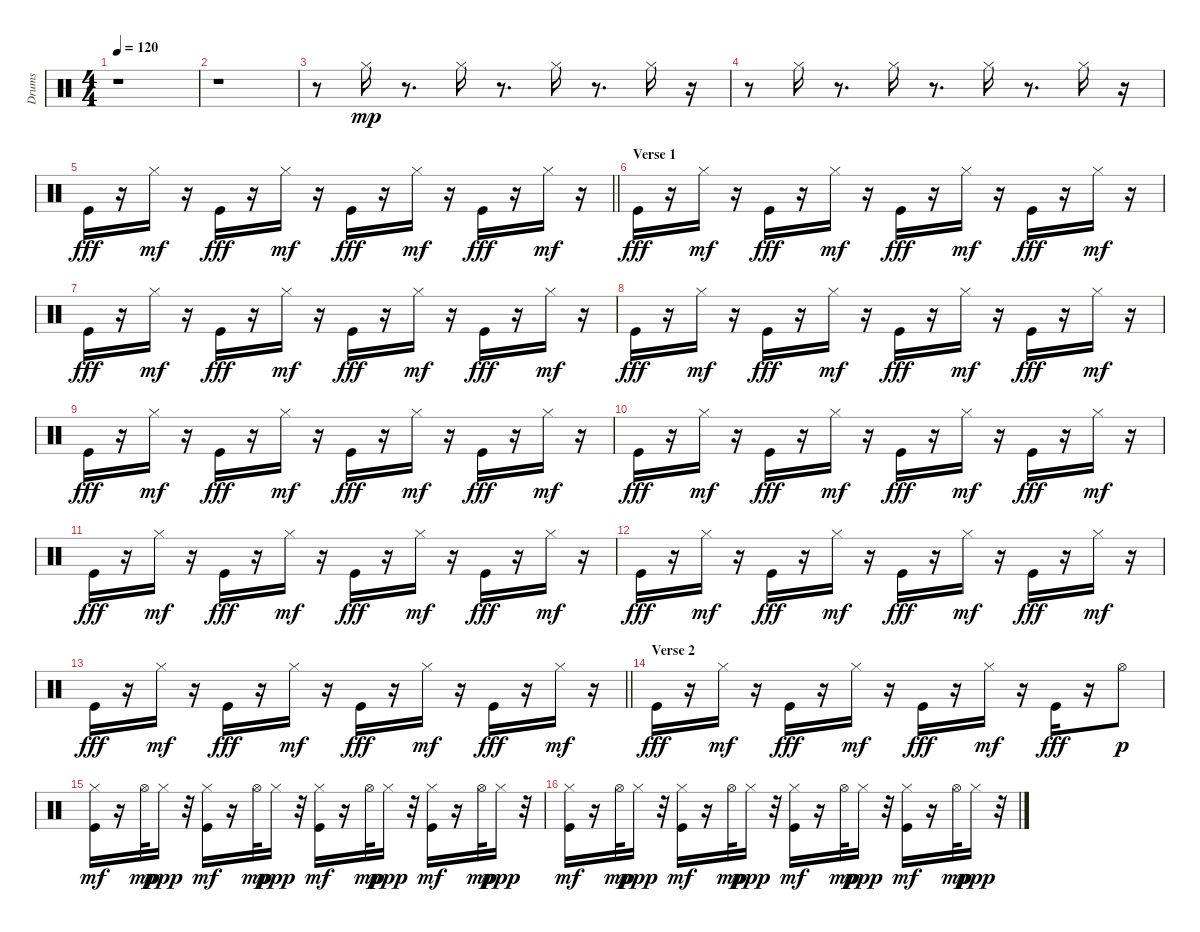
\track ("Drums" "Drums") {instrument percussion}
\staff {score}
\articulation defaults
\ts (4 4)
\tempo 120
\clef neutral
\ks c
r.1{dy mp} |
r.1 |
r.8 "Hi-Hat (closed)".16 r.8{d} "Hi-Hat (closed)".16 r.8{d} "Hi-Hat (closed)".16 r.8{d} "Hi-Hat (closed)".16 r.16 |
r.8 "Hi-Hat (closed)".16 r.8{d} "Hi-Hat (closed)".16 r.8{d} "Hi-Hat (closed)".16 r.8{d} "Hi-Hat (closed)".16 r.16 |
\barLineRight lightlight "Kick (hit)".16{dy fff}
r.16 "Hi-Hat (closed)".16{dy mf} r.16 "Kick (hit)".16{dy fff} r.16 "Hi-Hat (closed)".16{dy mf} r.16 "Kick (hit)".16{dy fff} r.16 "Hi-Hat (closed)".16{dy mf} r.16 "Kick (hit)".16{dy fff} r.16 "Hi-Hat (closed)".16{dy mf} r.16 |
\section ("" "Verse 1")
"Kick (hit)".16{dy fff} r.16 "Hi-Hat (closed)".16{dy mf} r.16 "Kick (hit)".16{dy fff} r.16 "Hi-Hat (closed)".16{dy mf} r.16 "Kick (hit)".16{dy fff} r.16 "Hi-Hat (closed)".16{dy mf} r.16 "Kick (hit)".16{dy fff} r.16 "Hi-Hat (closed)".16{dy mf} r.16 |
"Kick (hit)".16{dy fff} r.16 "Hi-Hat (closed)".16{dy mf} r.16 "Kick (hit)".16{dy fff} r.16 "Hi-Hat (closed)".16{dy mf} r.16 "Kick (hit)".16{dy fff} r.16 "Hi-Hat (closed)".16{dy mf} r.16 "Kick (hit)".16{dy fff} r.16 "Hi-Hat (closed)".16{dy mf} r.16 |
"Kick (hit)".16{dy fff} r.16 "Hi-Hat (closed)".16{dy mf} r.16 "Kick (hit)".16{dy fff} r.16 "Hi-Hat (closed)".16{dy mf} r.16 "Kick (hit)".16{dy fff} r.16 "Hi-Hat (closed)".16{dy mf} r.16 "Kick (hit)".16{dy fff} r.16 "Hi-Hat (closed)".16{dy mf} r.16 |
"Kick (hit)".16{dy fff} r.16 "Hi-Hat (closed)".16{dy mf} r.16 "Kick (hit)".16{dy fff} r.16 "Hi-Hat (closed)".16{dy mf} r.16 "Kick (hit)".16{dy fff} r.16 "Hi-Hat (closed)".16{dy mf} r.16 "Kick (hit)".16{dy fff} r.16 "Hi-Hat (closed)".16{dy mf} r.16 |
"Kick (hit)".16{dy fff} r.16 "Hi-Hat (closed)".16{dy mf} r.16 "Kick (hit)".16{dy fff} r.16 "Hi-Hat (closed)".16{dy mf} r.16 "Kick (hit)".16{dy fff} r.16 "Hi-Hat (closed)".16{dy mf} r.16 "Kick (hit)".16{dy fff} r.16 "Hi-Hat (closed)".16{dy mf} r.16 |
"Kick (hit)".16{dy fff} r.16 "Hi-Hat (closed)".16{dy mf} r.16 "Kick (hit)".16{dy fff} r.16 "Hi-Hat (closed)".16{dy mf} r.16 "Kick (hit)".16{dy fff} r.16 "Hi-Hat (closed)".16{dy mf} r.16 "Kick (hit)".16{dy fff} r.16 "Hi-Hat (closed)".16{dy mf} r.16 |
"Kick (hit)".16{dy fff} r.16 "Hi-Hat (closed)".16{dy mf} r.16 "Kick (hit)".16{dy fff} r.16 "Hi-Hat (closed)".16{dy mf} r.16 "Kick (hit)".16{dy fff} r.16 "Hi-Hat (closed)".16{dy mf} r.16 "Kick (hit)".16{dy fff} r.16 "Hi-Hat (closed)".16{dy mf} r.16 |
\barLineRight lightlight "Kick (hit)".16{dy fff}
r.16 "Hi-Hat (closed)".16{dy mf} r.16 "Kick (hit)".16{dy fff} r.16 "Hi-Hat (closed)".16{dy mf} r.16 "Kick (hit)".16{dy fff} r.16 "Hi-Hat (closed)".16{dy mf} r.16 "Kick (hit)".16{dy fff} r.16 "Hi-Hat (closed)".16{dy mf} r.16 |
\section ("" "Verse 2")
"Kick (hit)".16{dy fff} r.16 "Hi-Hat (closed)".16{dy mf} r.16 "Kick (hit)".16{dy fff} r.16 "Hi-Hat (closed)".16{dy mf} r.16 "Kick (hit)".16{dy fff} r.16 "Hi-Hat (closed)".16{dy mf} r.16 "Kick (hit)".16{dy fff} r.16 "Hi-Hat (open)".8{dy p} |
("Kick (hit)" "Hi-Hat (closed)").16{dy mf} r.16 "Hi-Hat (open)".32{dy mp} "Hi-Hat (closed)".16{dy ppp} r.32 ("Kick (hit)" "Hi-Hat (closed)").16{dy mf} r.16 "Hi-Hat (open)".32{dy mp} "Hi-Hat (closed)".16{dy ppp} r.32 ("Kick (hit)" "Hi-Hat (closed)").16{dy mf} r.16 "Hi-Hat (open)".32{dy mp} "Hi-Hat (closed)".16{dy ppp} r.32 ("Kick (hit)" "Hi-Hat (closed)").16{dy mf} r.16 "Hi-Hat (open)".32{dy mp} "Hi-Hat (closed)".16{dy ppp} r.32 |
("Kick (hit)" "Hi-Hat (closed)").16{dy mf} r.16 "Hi-Hat (open)".32{dy mp} "Hi-Hat (closed)".16{dy ppp} r.32 ("Kick (hit)" "Hi-Hat (closed)").16{dy mf} r.16 "Hi-Hat (open)".32{dy mp} "Hi-Hat (closed)".16{dy ppp} r.32 ("Kick (hit)" "Hi-Hat (closed)").16{dy mf} r.16 "Hi-Hat (open)".32{dy mp} "Hi-Hat (closed)".16{dy ppp} r.32 ("Kick (hit)" "Hi-Hat (closed)").16{dy mf} r.16 "Hi-Hat (open)".32{dy mp} "Hi-Hat (closed)".16{dy ppp} r.32
